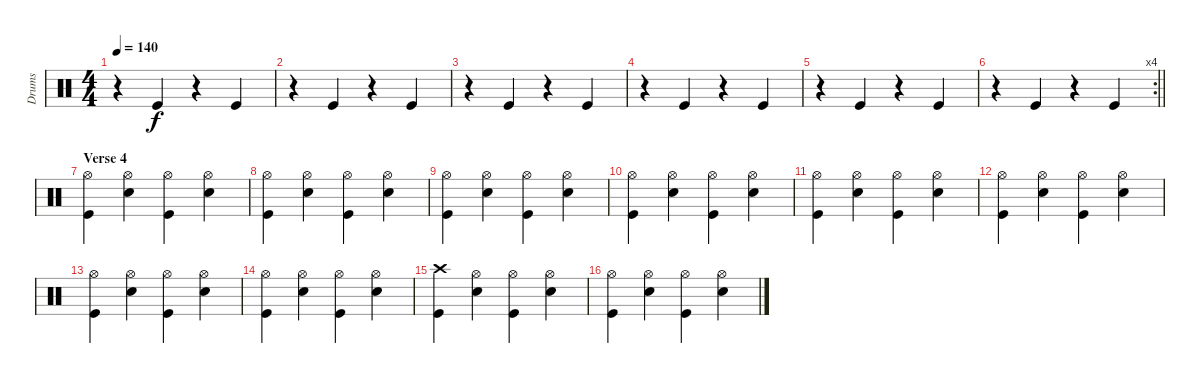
\track ("Drums" "Drums") {instrument percussion}
\staff {score}
\articulation defaults
\ts (4 4)
\tempo 140
\clef neutral
\ks c
r.4{dy f} "Kick (hit)".4 r.4 "Kick (hit)".4 |
r.4 "Kick (hit)".4 r.4 "Kick (hit)".4 |
r.4 "Kick (hit)".4 r.4 "Kick (hit)".4 |
r.4 "Kick (hit)".4 r.4 "Kick (hit)".4 |
r.4 "Kick (hit)".4 r.4 "Kick (hit)".4 |
\rc 4
\barLineRight lightlight
r.4 "Kick (hit)".4 r.4 "Kick (hit)".4 |
\section ("" "Verse 4")
("Hi-Hat (open)" "Kick (hit)").4 ("Hi-Hat (open)" "Snare (hit) 2").4 ("Hi-Hat (open)" "Kick (hit)").4 ("Hi-Hat (open)" "Snare (hit) 2").4 |
("Hi-Hat (open)" "Kick (hit)").4 ("Hi-Hat (open)" "Snare (hit) 2").4 ("Hi-Hat (open)" "Kick (hit)").4 ("Hi-Hat (open)" "Snare (hit) 2").4 |
("Hi-Hat (open)" "Kick (hit)").4 ("Hi-Hat (open)" "Snare (hit) 2").4 ("Hi-Hat (open)" "Kick (hit)").4 ("Hi-Hat (open)" "Snare (hit) 2").4 |
("Hi-Hat (open)" "Kick (hit)").4 ("Hi-Hat (open)" "Snare (hit) 2").4 ("Hi-Hat (open)" "Kick (hit)").4 ("Hi-Hat (open)" "Snare (hit) 2").4 |
("Hi-Hat (open)" "Kick (hit)").4 ("Hi-Hat (open)" "Snare (hit) 2").4 ("Hi-Hat (open)" "Kick (hit)").4 ("Hi-Hat (open)" "Snare (hit) 2").4 |
("Hi-Hat (open)" "Kick (hit)").4 ("Hi-Hat (open)" "Snare (hit) 2").4 ("Hi-Hat (open)" "Kick (hit)").4 ("Hi-Hat (open)" "Snare (hit) 2").4 |
("Hi-Hat (open)" "Kick (hit)").4 ("Hi-Hat (open)" "Snare (hit) 2").4 ("Hi-Hat (open)" "Kick (hit)").4 ("Hi-Hat (open)" "Snare (hit) 2").4 |
("Hi-Hat (open)" "Kick (hit)").4 ("Hi-Hat (open)" "Snare (hit) 2").4 ("Hi-Hat (open)" "Kick (hit)").4 ("Hi-Hat (open)" "Snare (hit) 2").4 |
("Crash high (hit)" "Kick (hit)").4 ("Hi-Hat (open)" "Snare (hit) 2").4 ("Hi-Hat (open)" "Kick (hit)").4 ("Hi-Hat (open)" "Snare (hit) 2").4 |
("Hi-Hat (open)" "Kick (hit)").4 ("Hi-Hat (open)" "Snare (hit) 2").4 ("Hi-Hat (open)" "Kick (hit)").4 ("Hi-Hat (open)" "Snare (hit) 2").4
